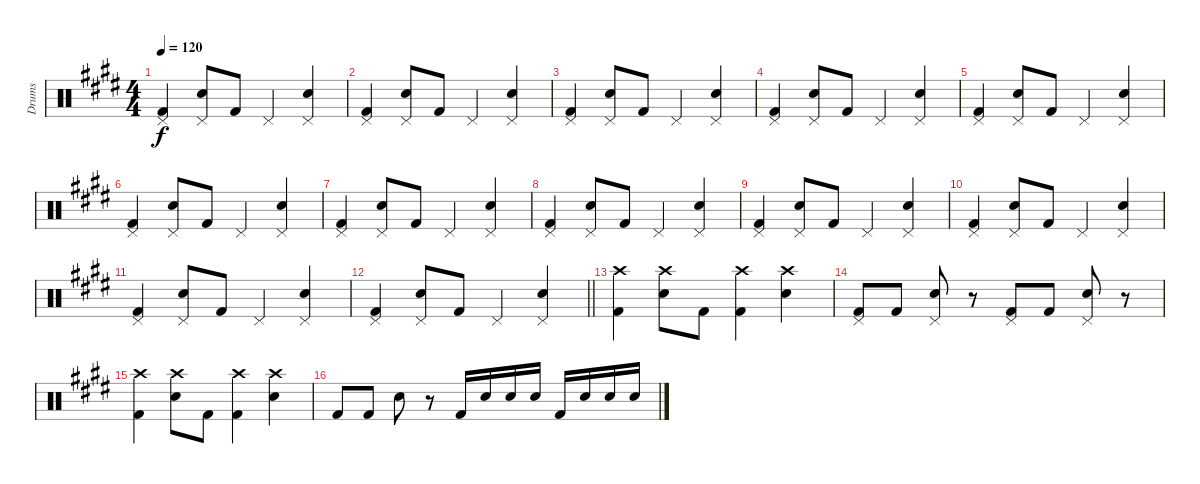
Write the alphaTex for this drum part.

\track ("Drums" "Drums") {instrument percussion}
\staff {score}
\articulation defaults
\ts (4 4)
\tempo 120
\clef neutral
\ks e
("Kick (hit) 2" "Pedal Hi-Hat (hit)").4{dy f} ("Snare (hit) 2" "Pedal Hi-Hat (hit)").8 "Kick (hit) 2".8 "Pedal Hi-Hat (hit)".4 ("Snare (hit) 2" "Pedal Hi-Hat (hit)").4 |
("Kick (hit) 2" "Pedal Hi-Hat (hit)").4 ("Snare (hit) 2" "Pedal Hi-Hat (hit)").8 "Kick (hit) 2".8 "Pedal Hi-Hat (hit)".4 ("Snare (hit) 2" "Pedal Hi-Hat (hit)").4 |
("Kick (hit) 2" "Pedal Hi-Hat (hit)").4 ("Snare (hit) 2" "Pedal Hi-Hat (hit)").8 "Kick (hit) 2".8 "Pedal Hi-Hat (hit)".4 ("Snare (hit) 2" "Pedal Hi-Hat (hit)").4 |
("Kick (hit) 2" "Pedal Hi-Hat (hit)").4 ("Snare (hit) 2" "Pedal Hi-Hat (hit)").8 "Kick (hit) 2".8 "Pedal Hi-Hat (hit)".4 ("Snare (hit) 2" "Pedal Hi-Hat (hit)").4 |
("Kick (hit) 2" "Pedal Hi-Hat (hit)").4 ("Snare (hit) 2" "Pedal Hi-Hat (hit)").8 "Kick (hit) 2".8 "Pedal Hi-Hat (hit)".4 ("Snare (hit) 2" "Pedal Hi-Hat (hit)").4 |
("Kick (hit) 2" "Pedal Hi-Hat (hit)").4 ("Snare (hit) 2" "Pedal Hi-Hat (hit)").8 "Kick (hit) 2".8 "Pedal Hi-Hat (hit)".4 ("Snare (hit) 2" "Pedal Hi-Hat (hit)").4 |
("Kick (hit) 2" "Pedal Hi-Hat (hit)").4 ("Snare (hit) 2" "Pedal Hi-Hat (hit)").8 "Kick (hit) 2".8 "Pedal Hi-Hat (hit)".4 ("Snare (hit) 2" "Pedal Hi-Hat (hit)").4 |
("Kick (hit) 2" "Pedal Hi-Hat (hit)").4 ("Snare (hit) 2" "Pedal Hi-Hat (hit)").8 "Kick (hit) 2".8 "Pedal Hi-Hat (hit)".4 ("Snare (hit) 2" "Pedal Hi-Hat (hit)").4 |
("Kick (hit) 2" "Pedal Hi-Hat (hit)").4 ("Snare (hit) 2" "Pedal Hi-Hat (hit)").8 "Kick (hit) 2".8 "Pedal Hi-Hat (hit)".4 ("Snare (hit) 2" "Pedal Hi-Hat (hit)").4 |
("Kick (hit) 2" "Pedal Hi-Hat (hit)").4 ("Snare (hit) 2" "Pedal Hi-Hat (hit)").8 "Kick (hit) 2".8 "Pedal Hi-Hat (hit)".4 ("Snare (hit) 2" "Pedal Hi-Hat (hit)").4 |
("Kick (hit) 2" "Pedal Hi-Hat (hit)").4 ("Snare (hit) 2" "Pedal Hi-Hat (hit)").8 "Kick (hit) 2".8 "Pedal Hi-Hat (hit)".4 ("Snare (hit) 2" "Pedal Hi-Hat (hit)").4 |
\barLineRight lightlight
("Kick (hit) 2" "Pedal Hi-Hat (hit)").4 ("Snare (hit) 2" "Pedal Hi-Hat (hit)").8 "Kick (hit) 2".8 "Pedal Hi-Hat (hit)".4 ("Snare (hit) 2" "Pedal Hi-Hat (hit)").4 |
("Kick (hit) 2" "Crash high (hit)").4 ("Snare (hit) 2" "Crash high (hit)").8 "Kick (hit) 2".8 ("Kick (hit) 2" "Crash high (hit)").4 ("Snare (hit) 2" "Crash high (hit)").4 |
("Kick (hit) 2" "Pedal Hi-Hat (hit)").8 "Kick (hit) 2".8 ("Snare (hit) 2" "Pedal Hi-Hat (hit)").8 r.8 ("Kick (hit) 2" "Pedal Hi-Hat (hit)").8 "Kick (hit) 2".8 ("Snare (hit) 2" "Pedal Hi-Hat (hit)").8 r.8 |
("Kick (hit) 2" "Crash high (hit)").4 ("Snare (hit) 2" "Crash high (hit)").8 "Kick (hit) 2".8 ("Kick (hit) 2" "Crash high (hit)").4 ("Snare (hit) 2" "Crash high (hit)").4 |
"Kick (hit) 2".8 "Kick (hit) 2".8 "Snare (hit) 2".8 r.8 "Kick (hit) 2".16 "Snare (hit) 2".16 "Snare (hit) 2".16 "Snare (hit) 2".16 "Kick (hit) 2".16 "Snare (hit) 2".16 "Snare (hit) 2".16 "Snare (hit) 2".16
